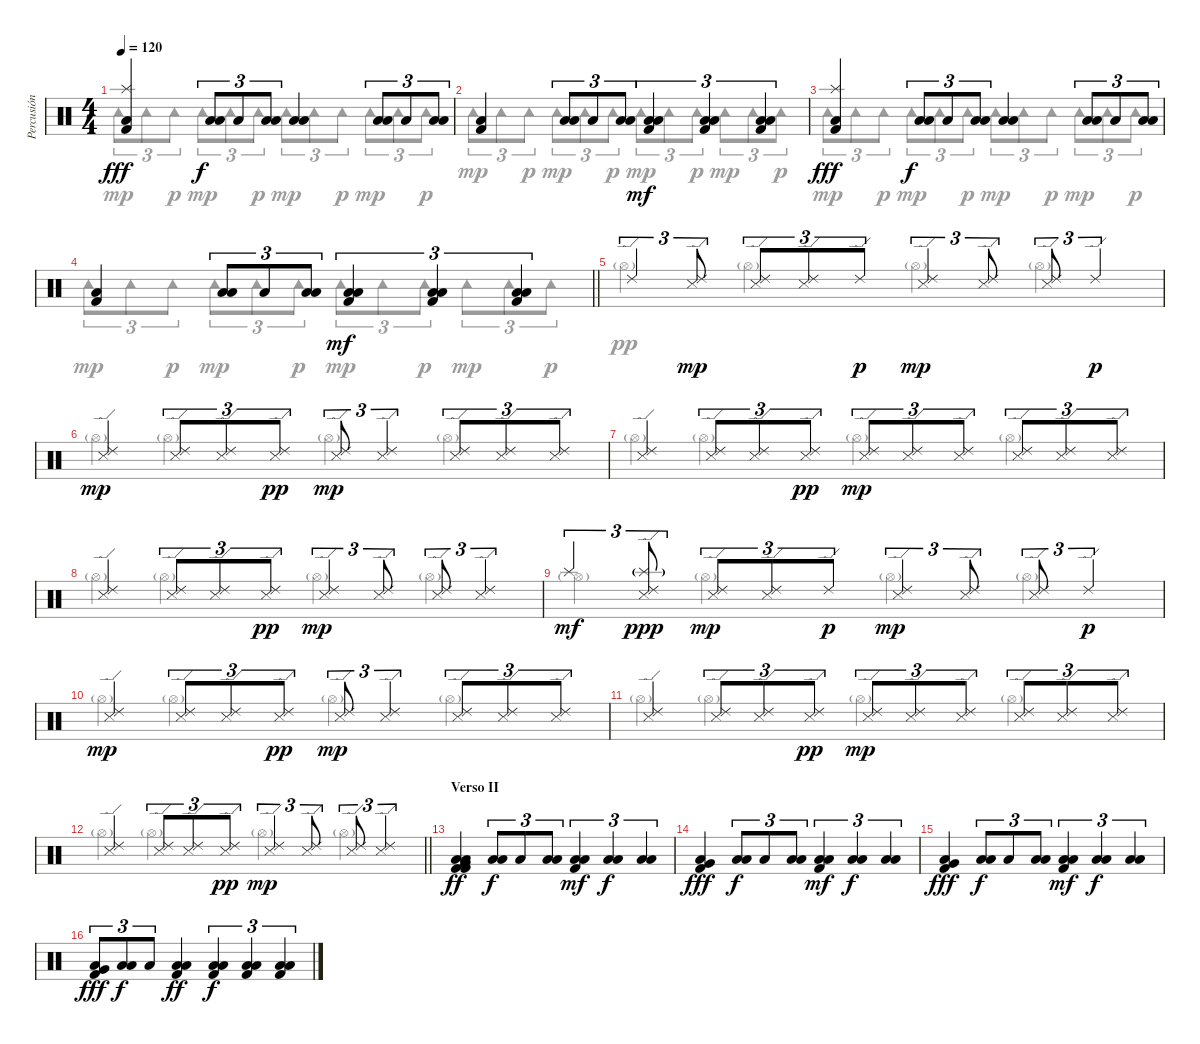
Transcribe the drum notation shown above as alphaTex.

\track ("Percusión" "Percusión") {instrument percussion}
\staff {score}
\articulation defaults
\voice
\ts (4 4)
\tempo 120
\clef neutral
\ks c
("Splash (hit)" "Low Floor Tom (hit)" "Kick (hit) 2").4{dy fff} ("Low Floor Tom (hit)" "Low Floor Tom (hit)").8{tu (3 2) dy f} "Low Floor Tom (hit)".8{tu (3 2)} ("Low Floor Tom (hit)" "Low Floor Tom (hit)").8{tu (3 2)} ("Low Floor Tom (hit)" "Low Floor Tom (hit)").4 ("Low Floor Tom (hit)" "Low Floor Tom (hit)").8{tu (3 2)} "Low Floor Tom (hit)".8{tu (3 2)} ("Low Floor Tom (hit)" "Low Floor Tom (hit)").8{tu (3 2)} |
("Low Floor Tom (hit)" "Kick (hit) 2").4 ("Low Floor Tom (hit)" "Low Floor Tom (hit)").8{tu (3 2)} "Low Floor Tom (hit)".8{tu (3 2)} ("Low Floor Tom (hit)" "Low Floor Tom (hit)").8{tu (3 2)} ("Kick (hit) 2" "Low Floor Tom (hit)" "Low Floor Tom (hit)").4{tu (3 2) dy mf} ("Kick (hit) 2" "Low Floor Tom (hit)" "Low Floor Tom (hit)").4{tu (3 2)} ("Kick (hit) 2" "Low Floor Tom (hit)" "Low Floor Tom (hit)").4{tu (3 2)} |
("Splash (hit)" "Low Floor Tom (hit)" "Kick (hit) 2").4{dy fff} ("Low Floor Tom (hit)" "Low Floor Tom (hit)").8{tu (3 2) dy f} "Low Floor Tom (hit)".8{tu (3 2)} ("Low Floor Tom (hit)" "Low Floor Tom (hit)").8{tu (3 2)} ("Low Floor Tom (hit)" "Low Floor Tom (hit)").4 ("Low Floor Tom (hit)" "Low Floor Tom (hit)").8{tu (3 2)} "Low Floor Tom (hit)".8{tu (3 2)} ("Low Floor Tom (hit)" "Low Floor Tom (hit)").8{tu (3 2)} |
\barLineRight lightlight
("Low Floor Tom (hit)" "Kick (hit) 2").4 ("Low Floor Tom (hit)" "Low Floor Tom (hit)").8{tu (3 2)} "Low Floor Tom (hit)".8{tu (3 2)} ("Low Floor Tom (hit)" "Low Floor Tom (hit)").8{tu (3 2)} ("Kick (hit) 2" "Low Floor Tom (hit)" "Low Floor Tom (hit)").4{tu (3 2) dy mf} ("Kick (hit) 2" "Low Floor Tom (hit)" "Low Floor Tom (hit)").4{tu (3 2)} ("Kick (hit) 2" "Low Floor Tom (hit)" "Low Floor Tom (hit)").4{tu (3 2)} |
"Ride (edge) 2".4{tu (3 2)} ("Ride (edge) 2" "Metronome (hit)").8{tu (3 2) dy mp} ("Ride (edge) 2" "Metronome (hit)").8{tu (3 2)} ("Ride (edge) 2" "Metronome (hit)").8{tu (3 2)} "Ride (edge) 2".8{tu (3 2) dy p} ("Ride (edge) 2" "Metronome (hit)").4{tu (3 2) dy mp} ("Ride (edge) 2" "Metronome (hit)").8{tu (3 2)} ("Ride (edge) 2" "Metronome (hit)").8{tu (3 2)} "Ride (edge) 2".4{tu (3 2) dy p} |
("Ride (edge) 2" "Metronome (hit)").4{dy mp} ("Ride (edge) 2" "Metronome (hit)").8{tu (3 2)} ("Ride (edge) 2" "Metronome (hit)").8{tu (3 2)} ("Ride (edge) 2" "Metronome (hit)").8{tu (3 2) dy pp} ("Ride (edge) 2" "Metronome (hit)").8{tu (3 2) dy mp} ("Ride (edge) 2" "Metronome (hit)").4{tu (3 2)} ("Ride (edge) 2" "Metronome (hit)").8{tu (3 2)} ("Ride (edge) 2" "Metronome (hit)").8{tu (3 2)} ("Ride (edge) 2" "Metronome (hit)").8{tu (3 2)} |
("Ride (edge) 2" "Metronome (hit)").4 ("Ride (edge) 2" "Metronome (hit)").8{tu (3 2)} ("Ride (edge) 2" "Metronome (hit)").8{tu (3 2)} ("Ride (edge) 2" "Metronome (hit)").8{tu (3 2) dy pp} ("Ride (edge) 2" "Metronome (hit)").8{tu (3 2) dy mp} ("Ride (edge) 2" "Metronome (hit)").8{tu (3 2)} ("Ride (edge) 2" "Metronome (hit)").8{tu (3 2)} ("Ride (edge) 2" "Metronome (hit)").8{tu (3 2)} ("Ride (edge) 2" "Metronome (hit)").8{tu (3 2)} ("Ride (edge) 2" "Metronome (hit)").8{tu (3 2)} |
("Ride (edge) 2" "Metronome (hit)").4 ("Ride (edge) 2" "Metronome (hit)").8{tu (3 2)} ("Ride (edge) 2" "Metronome (hit)").8{tu (3 2)} ("Ride (edge) 2" "Metronome (hit)").8{tu (3 2) dy pp} ("Ride (edge) 2" "Metronome (hit)").4{tu (3 2) dy mp} ("Ride (edge) 2" "Metronome (hit)").8{tu (3 2)} ("Ride (edge) 2" "Metronome (hit)").8{tu (3 2)} ("Ride (edge) 2" "Metronome (hit)").4{tu (3 2)} |
"Splash (hit)".4{tu (3 2) dy mf} ("Ride (edge) 2" "Metronome (hit)" "Splash (hit)"{g}).8{tu (3 2) dy ppp} ("Ride (edge) 2" "Metronome (hit)").8{tu (3 2) dy mp} ("Ride (edge) 2" "Metronome (hit)").8{tu (3 2)} "Ride (edge) 2".8{tu (3 2) dy p} ("Ride (edge) 2" "Metronome (hit)").4{tu (3 2) dy mp} ("Ride (edge) 2" "Metronome (hit)").8{tu (3 2)} ("Ride (edge) 2" "Metronome (hit)").8{tu (3 2)} "Ride (edge) 2".4{tu (3 2) dy p} |
("Ride (edge) 2" "Metronome (hit)").4{dy mp} ("Ride (edge) 2" "Metronome (hit)").8{tu (3 2)} ("Ride (edge) 2" "Metronome (hit)").8{tu (3 2)} ("Ride (edge) 2" "Metronome (hit)").8{tu (3 2) dy pp} ("Ride (edge) 2" "Metronome (hit)").8{tu (3 2) dy mp} ("Ride (edge) 2" "Metronome (hit)").4{tu (3 2)} ("Ride (edge) 2" "Metronome (hit)").8{tu (3 2)} ("Ride (edge) 2" "Metronome (hit)").8{tu (3 2)} ("Ride (edge) 2" "Metronome (hit)").8{tu (3 2)} |
("Ride (edge) 2" "Metronome (hit)").4 ("Ride (edge) 2" "Metronome (hit)").8{tu (3 2)} ("Ride (edge) 2" "Metronome (hit)").8{tu (3 2)} ("Ride (edge) 2" "Metronome (hit)").8{tu (3 2) dy pp} ("Ride (edge) 2" "Metronome (hit)").8{tu (3 2) dy mp} ("Ride (edge) 2" "Metronome (hit)").8{tu (3 2)} ("Ride (edge) 2" "Metronome (hit)").8{tu (3 2)} ("Ride (edge) 2" "Metronome (hit)").8{tu (3 2)} ("Ride (edge) 2" "Metronome (hit)").8{tu (3 2)} ("Ride (edge) 2" "Metronome (hit)").8{tu (3 2)} |
\barLineRight lightlight
("Ride (edge) 2" "Metronome (hit)").4 ("Ride (edge) 2" "Metronome (hit)").8{tu (3 2)} ("Ride (edge) 2" "Metronome (hit)").8{tu (3 2)} ("Ride (edge) 2" "Metronome (hit)").8{tu (3 2) dy pp} ("Ride (edge) 2" "Metronome (hit)").4{tu (3 2) dy mp} ("Ride (edge) 2" "Metronome (hit)").8{tu (3 2)} ("Ride (edge) 2" "Metronome (hit)").8{tu (3 2)} ("Ride (edge) 2" "Metronome (hit)").4{tu (3 2)} |
\section ("" "Verso II")
("Kick (hit) 2" "Kick (hit) 2" "Very Low Tom (hit)" "Low Floor Tom (hit)" "Low Floor Tom (hit)").4{dy ff} ("Low Floor Tom (hit)" "Low Floor Tom (hit)").8{tu (3 2) dy f} "Low Floor Tom (hit)".8{tu (3 2)} ("Low Floor Tom (hit)" "Low Floor Tom (hit)").8{tu (3 2)} ("Kick (hit) 2" "Low Floor Tom (hit)" "Low Floor Tom (hit)").4{tu (3 2) dy mf} ("Low Floor Tom (hit)" "Low Floor Tom (hit)").4{tu (3 2) dy f} ("Low Floor Tom (hit)" "Low Floor Tom (hit)").4{tu (3 2)} |
("Low Floor Tom (hit)" "Very Low Tom (hit)" "Kick (hit) 2").4{dy fff} ("Low Floor Tom (hit)" "Low Floor Tom (hit)").8{tu (3 2) dy f} "Low Floor Tom (hit)".8{tu (3 2)} ("Low Floor Tom (hit)" "Low Floor Tom (hit)").8{tu (3 2)} ("Kick (hit) 2" "Low Floor Tom (hit)" "Low Floor Tom (hit)").4{tu (3 2) dy mf} ("Low Floor Tom (hit)" "Low Floor Tom (hit)").4{tu (3 2) dy f} ("Low Floor Tom (hit)" "Low Floor Tom (hit)").4{tu (3 2)} |
("Low Floor Tom (hit)" "Very Low Tom (hit)" "Kick (hit) 2").4{dy fff} ("Low Floor Tom (hit)" "Low Floor Tom (hit)").8{tu (3 2) dy f} "Low Floor Tom (hit)".8{tu (3 2)} ("Low Floor Tom (hit)" "Low Floor Tom (hit)").8{tu (3 2)} ("Kick (hit) 2" "Low Floor Tom (hit)" "Low Floor Tom (hit)").4{tu (3 2) dy mf} ("Low Floor Tom (hit)" "Low Floor Tom (hit)").4{tu (3 2) dy f} ("Low Floor Tom (hit)" "Low Floor Tom (hit)").4{tu (3 2)} |
("Low Floor Tom (hit)" "Very Low Tom (hit)" "Kick (hit) 2").8{tu (3 2) dy fff} ("Low Floor Tom (hit)" "Low Floor Tom (hit)").8{tu (3 2) dy f} "Low Floor Tom (hit)".8{tu (3 2)} ("Kick (hit) 2" "Low Floor Tom (hit)" "Low Floor Tom (hit)").4{dy ff} ("Kick (hit) 2" "Low Floor Tom (hit)" "Low Floor Tom (hit)").4{tu (3 2) dy f} ("Kick (hit) 2" "Low Floor Tom (hit)" "Low Floor Tom (hit)").4{tu (3 2)} ("Kick (hit) 2" "Low Floor Tom (hit)" "Low Floor Tom (hit)").4{tu (3 2)}
\voice
\clef neutral
\ottava regular
\simile none
\ks c "Tambourine (hit)".8{tu (3 2) dy mp} "Tambourine (hit)".8{tu (3 2)} "Tambourine (hit)".8{tu (3 2) dy p} "Tambourine (hit)".8{tu (3 2) dy mp} "Tambourine (hit)".8{tu (3 2)} "Tambourine (hit)".8{tu (3 2) dy p} "Tambourine (hit)".8{tu (3 2) dy mp} "Tambourine (hit)".8{tu (3 2)} "Tambourine (hit)".8{tu (3 2) dy p} "Tambourine (hit)".8{tu (3 2) dy mp} "Tambourine (hit)".8{tu (3 2)} "Tambourine (hit)".8{tu (3 2) dy p}
|
"Tambourine (hit)".8{tu (3 2) dy mp} "Tambourine (hit)".8{tu (3 2)} "Tambourine (hit)".8{tu (3 2) dy p} "Tambourine (hit)".8{tu (3 2) dy mp} "Tambourine (hit)".8{tu (3 2)} "Tambourine (hit)".8{tu (3 2) dy p} "Tambourine (hit)".8{tu (3 2) dy mp} "Tambourine (hit)".8{tu (3 2)} "Tambourine (hit)".8{tu (3 2) dy p} "Tambourine (hit)".8{tu (3 2) dy mp} "Tambourine (hit)".8{tu (3 2)} "Tambourine (hit)".8{tu (3 2) dy p} |
"Tambourine (hit)".8{tu (3 2) dy mp} "Tambourine (hit)".8{tu (3 2)} "Tambourine (hit)".8{tu (3 2) dy p} "Tambourine (hit)".8{tu (3 2) dy mp} "Tambourine (hit)".8{tu (3 2)} "Tambourine (hit)".8{tu (3 2) dy p} "Tambourine (hit)".8{tu (3 2) dy mp} "Tambourine (hit)".8{tu (3 2)} "Tambourine (hit)".8{tu (3 2) dy p} "Tambourine (hit)".8{tu (3 2) dy mp} "Tambourine (hit)".8{tu (3 2)} "Tambourine (hit)".8{tu (3 2) dy p} |
\barLineRight lightlight "Tambourine (hit)".8{tu (3 2) dy mp} "Tambourine (hit)".8{tu (3 2)} "Tambourine (hit)".8{tu (3 2) dy p} "Tambourine (hit)".8{tu (3 2) dy mp} "Tambourine (hit)".8{tu (3 2)} "Tambourine (hit)".8{tu (3 2) dy p} "Tambourine (hit)".8{tu (3 2) dy mp} "Tambourine (hit)".8{tu (3 2)} "Tambourine (hit)".8{tu (3 2) dy p} "Tambourine (hit)".8{tu (3 2) dy mp} "Tambourine (hit)".8{tu (3 2)} "Tambourine (hit)".8{tu (3 2) dy p}
|
"Hi-Hat (open)"{g}.4{dy pp} "Hi-Hat (open)"{g}.4 "Hi-Hat (open)"{g}.4 "Hi-Hat (open)"{g}.4 |
"Hi-Hat (open)"{g}.4 "Hi-Hat (open)"{g}.4 "Hi-Hat (open)"{g}.4 "Hi-Hat (open)"{g}.4 |
"Hi-Hat (open)"{g}.4 "Hi-Hat (open)"{g}.4 "Hi-Hat (open)"{g}.4 "Hi-Hat (open)"{g}.4 |
"Hi-Hat (open)"{g}.4 "Hi-Hat (open)"{g}.4 "Hi-Hat (open)"{g}.4 "Hi-Hat (open)"{g}.4 |
"Hi-Hat (open)"{g}.4 "Hi-Hat (open)"{g}.4 "Hi-Hat (open)"{g}.4 "Hi-Hat (open)"{g}.4 |
"Hi-Hat (open)"{g}.4 "Hi-Hat (open)"{g}.4 "Hi-Hat (open)"{g}.4 "Hi-Hat (open)"{g}.4 |
"Hi-Hat (open)"{g}.4 "Hi-Hat (open)"{g}.4 "Hi-Hat (open)"{g}.4 "Hi-Hat (open)"{g}.4 |
\barLineRight lightlight "Hi-Hat (open)"{g}.4 "Hi-Hat (open)"{g}.4 "Hi-Hat (open)"{g}.4 "Hi-Hat (open)"{g}.4
|
|
|
|
